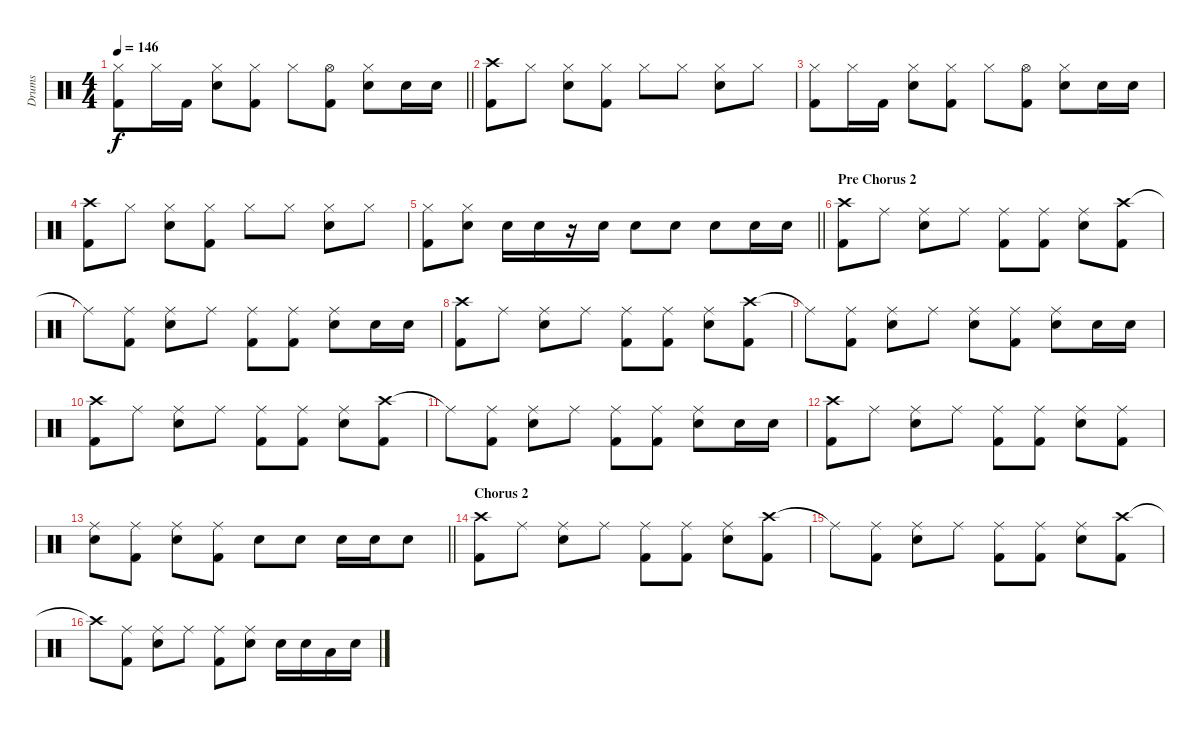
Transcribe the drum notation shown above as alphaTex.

\track ("Drums" "Drums") {instrument percussion}
\staff {score}
\articulation defaults
\ts (4 4)
\tempo 146
\clef neutral
\barLineRight lightlight
\ks c
("Hi-Hat (closed)" "Kick (hit) 2").8{dy f} "Hi-Hat (closed)".16 "Kick (hit) 2".16 ("Hi-Hat (closed)" "Snare (hit) 2").8 ("Hi-Hat (closed)" "Kick (hit) 2").8 "Hi-Hat (closed)".8 ("Hi-Hat (open)" "Kick (hit) 2").8 ("Hi-Hat (closed)" "Snare (hit) 2").8 "Snare (hit) 2".16 "Snare (hit) 2".16 |
("Crash high (hit)" "Kick (hit) 2").8 "Hi-Hat (closed)".8 ("Hi-Hat (closed)" "Snare (hit) 2").8 ("Hi-Hat (closed)" "Kick (hit) 2").8 "Hi-Hat (closed)".8 "Hi-Hat (closed)".8 ("Hi-Hat (closed)" "Snare (hit) 2").8 "Hi-Hat (closed)".8 |
("Hi-Hat (closed)" "Kick (hit) 2").8 "Hi-Hat (closed)".16 "Kick (hit) 2".16 ("Hi-Hat (closed)" "Snare (hit) 2").8 ("Hi-Hat (closed)" "Kick (hit) 2").8 "Hi-Hat (closed)".8 ("Hi-Hat (open)" "Kick (hit) 2").8 ("Hi-Hat (closed)" "Snare (hit) 2").8 "Snare (hit) 2".16 "Snare (hit) 2".16 |
("Crash high (hit)" "Kick (hit) 2").8 "Hi-Hat (closed)".8 ("Hi-Hat (closed)" "Snare (hit) 2").8 ("Hi-Hat (closed)" "Kick (hit) 2").8 "Hi-Hat (closed)".8 "Hi-Hat (closed)".8 ("Hi-Hat (closed)" "Snare (hit) 2").8 "Hi-Hat (closed)".8 |
\barLineRight lightlight
("Hi-Hat (closed)" "Kick (hit) 2").8 ("Hi-Hat (closed)" "Snare (hit) 2").8 "Snare (hit) 2".16 "Snare (hit) 2".16 r.16 "Snare (hit) 2".16 "Snare (hit) 2".8 "Snare (hit) 2".8 "Snare (hit) 2".8 "Snare (hit) 2".16 "Snare (hit) 2".16 |
\section ("" "Pre Chorus 2")
("Crash high (hit)" "Kick (hit) 2").8 "Ride (middle)".8 ("Ride (middle)" "Snare (hit) 2").8 "Ride (middle)".8 ("Ride (middle)" "Kick (hit) 2").8 ("Ride (middle)" "Kick (hit) 2").8 ("Ride (middle)" "Snare (hit) 2").8 ("Crash high (hit)" "Kick (hit) 2").8 |
"Ride (middle)"{t}.8 ("Ride (middle)" "Kick (hit) 2").8 ("Ride (middle)" "Snare (hit) 2").8 "Ride (middle)".8 ("Ride (middle)" "Kick (hit) 2").8 ("Ride (middle)" "Kick (hit) 2").8 ("Ride (middle)" "Snare (hit) 2").8 "Snare (hit) 2".16 "Snare (hit) 2".16 |
("Crash high (hit)" "Kick (hit) 2").8 "Ride (middle)".8 ("Ride (middle)" "Snare (hit) 2").8 "Ride (middle)".8 ("Ride (middle)" "Kick (hit) 2").8 ("Ride (middle)" "Kick (hit) 2").8 ("Ride (middle)" "Snare (hit) 2").8 ("Crash high (hit)" "Kick (hit) 2").8 |
"Ride (middle)"{t}.8 ("Ride (middle)" "Kick (hit) 2").8 ("Ride (middle)" "Snare (hit) 2").8 "Ride (middle)".8 ("Ride (middle)" "Snare (hit) 2").8 ("Ride (middle)" "Kick (hit) 2").8 ("Ride (middle)" "Snare (hit) 2").8 "Snare (hit) 2".16 "Snare (hit) 2".16 |
("Crash high (hit)" "Kick (hit) 2").8 "Ride (middle)".8 ("Ride (middle)" "Snare (hit) 2").8 "Ride (middle)".8 ("Ride (middle)" "Kick (hit) 2").8 ("Ride (middle)" "Kick (hit) 2").8 ("Ride (middle)" "Snare (hit) 2").8 ("Crash high (hit)" "Kick (hit) 2").8 |
"Ride (middle)"{t}.8 ("Ride (middle)" "Kick (hit) 2").8 ("Ride (middle)" "Snare (hit) 2").8 "Ride (middle)".8 ("Ride (middle)" "Kick (hit) 2").8 ("Ride (middle)" "Kick (hit) 2").8 ("Ride (middle)" "Snare (hit) 2").8 "Snare (hit) 2".16 "Snare (hit) 2".16 |
("Crash high (hit)" "Kick (hit) 2").8 "Ride (middle)".8 ("Ride (middle)" "Snare (hit) 2").8 "Ride (middle)".8 ("Ride (middle)" "Kick (hit) 2").8 ("Ride (middle)" "Kick (hit) 2").8 ("Ride (middle)" "Snare (hit) 2").8 ("Ride (middle)" "Kick (hit) 2").8 |
\barLineRight lightlight
("Ride (middle)" "Snare (hit) 2").8 ("Ride (middle)" "Kick (hit) 2").8 ("Ride (middle)" "Snare (hit) 2").8 ("Ride (middle)" "Kick (hit) 2").8 "Snare (hit) 2".8 "Snare (hit) 2".8 "Snare (hit) 2".16 "Snare (hit) 2".16 "Snare (hit) 2".8 |
\section ("" "Chorus 2")
("Crash high (hit)" "Kick (hit) 2").8 "Ride (middle)".8 ("Ride (middle)" "Snare (hit) 2").8 "Ride (middle)".8 ("Ride (middle)" "Kick (hit) 2").8 ("Ride (middle)" "Kick (hit) 2").8 ("Ride (middle)" "Snare (hit) 2").8 ("Crash high (hit)" "Kick (hit) 2").8 |
"Ride (middle)"{t}.8 ("Ride (middle)" "Kick (hit) 2").8 ("Ride (middle)" "Snare (hit) 2").8 "Ride (middle)".8 ("Ride (middle)" "Kick (hit) 2").8 ("Ride (middle)" "Kick (hit) 2").8 ("Ride (middle)" "Snare (hit) 2").8 ("Crash high (hit)" "Kick (hit) 2").8 |
"Crash high (hit)"{t}.8 ("Ride (middle)" "Kick (hit) 2").8 ("Ride (middle)" "Snare (hit) 2").8 "Ride (middle)".8 ("Ride (middle)" "Kick (hit) 2").8 ("Ride (middle)" "Snare (hit) 2").8 "Snare (hit) 2".16 "Snare (hit) 2".16 "Low Tom (hit)".16 "Snare (hit) 2".16
